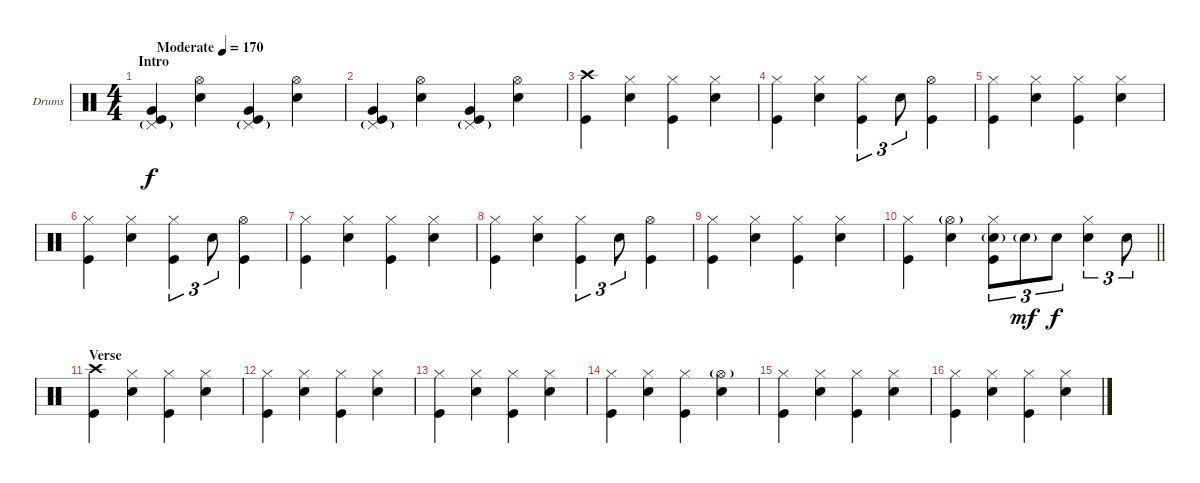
\bracketExtendMode groupsimilarinstruments
\firstSystemTrackNameOrientation horizontal
\otherSystemsTrackNameOrientation horizontal
\track ("Dave Grohl [Drumms]" "Drums") {instrument percussion}
\staff {score}
\articulation defaults
\ts (4 4)
\beaming (8 2 2 2 2)
\section ("" "Intro")
\tempo (170 "Moderate")
\clef neutral
\ks c
("Pedal Hi-Hat (hit)"{g} "Very Low Tom (hit)" "Kick (hit)").4{dy f} ("Hi-Hat (open)" "Snare (hit) 2").4 ("Pedal Hi-Hat (hit)"{g} "Very Low Tom (hit)" "Kick (hit)").4 ("Hi-Hat (open)" "Snare (hit) 2").4 |
("Pedal Hi-Hat (hit)"{g} "Very Low Tom (hit)" "Kick (hit)").4 ("Hi-Hat (open)" "Snare (hit) 2").4 ("Pedal Hi-Hat (hit)"{g} "Very Low Tom (hit)" "Kick (hit)").4 ("Hi-Hat (open)" "Snare (hit) 2").4 |
("Crash high (hit)" "Kick (hit)").4 ("Hi-Hat (closed)" "Snare (hit) 2").4 ("Hi-Hat (closed)" "Kick (hit)").4 ("Hi-Hat (closed)" "Snare (hit) 2").4 |
("Hi-Hat (closed)" "Kick (hit)").4 ("Hi-Hat (closed)" "Snare (hit) 2").4 ("Hi-Hat (closed)" "Kick (hit)").4{tu (3 2)} "Snare (hit) 2".8{tu (3 2)} ("Hi-Hat (open)" "Kick (hit)").4 |
("Hi-Hat (closed)" "Kick (hit)").4 ("Hi-Hat (closed)" "Snare (hit) 2").4 ("Hi-Hat (closed)" "Kick (hit)").4 ("Hi-Hat (closed)" "Snare (hit) 2").4 |
("Hi-Hat (closed)" "Kick (hit)").4 ("Hi-Hat (closed)" "Snare (hit) 2").4 ("Hi-Hat (closed)" "Kick (hit)").4{tu (3 2)} "Snare (hit) 2".8{tu (3 2)} ("Hi-Hat (open)" "Kick (hit)").4 |
("Hi-Hat (closed)" "Kick (hit)").4 ("Hi-Hat (closed)" "Snare (hit) 2").4 ("Hi-Hat (closed)" "Kick (hit)").4 ("Hi-Hat (closed)" "Snare (hit) 2").4 |
("Hi-Hat (closed)" "Kick (hit)").4 ("Hi-Hat (closed)" "Snare (hit) 2").4 ("Hi-Hat (closed)" "Kick (hit)").4{tu (3 2)} "Snare (hit) 2".8{tu (3 2)} ("Hi-Hat (open)" "Kick (hit)").4 |
("Hi-Hat (closed)" "Kick (hit)").4 ("Hi-Hat (closed)" "Snare (hit) 2").4 ("Hi-Hat (closed)" "Kick (hit)").4 ("Hi-Hat (closed)" "Snare (hit) 2").4 |
\barLineRight lightlight
("Hi-Hat (closed)" "Kick (hit)").4 ("Hi-Hat (open)"{g} "Snare (hit) 2").4 ("Hi-Hat (closed)" "Snare (hit) 2"{g} "Kick (hit)").8{tu (3 2)} "Snare (hit) 2"{g}.8{tu (3 2) dy mf} "Snare (hit) 2".8{tu (3 2) dy f} ("Hi-Hat (closed)" "Snare (hit) 2").4{tu (3 2)} "Snare (hit) 2".8{tu (3 2)} |
\section ("" "Verse")
("Crash high (hit)" "Kick (hit)").4 ("Hi-Hat (closed)" "Snare (hit) 2").4 ("Hi-Hat (closed)" "Kick (hit)").4 ("Hi-Hat (closed)" "Snare (hit) 2").4 |
("Hi-Hat (closed)" "Kick (hit)").4 ("Hi-Hat (closed)" "Snare (hit) 2").4 ("Hi-Hat (closed)" "Kick (hit)").4 ("Hi-Hat (closed)" "Snare (hit) 2").4 |
("Hi-Hat (closed)" "Kick (hit)").4 ("Hi-Hat (closed)" "Snare (hit) 2").4 ("Hi-Hat (closed)" "Kick (hit)").4 ("Hi-Hat (closed)" "Snare (hit) 2").4 |
("Hi-Hat (closed)" "Kick (hit)").4 ("Hi-Hat (closed)" "Snare (hit) 2").4 ("Hi-Hat (closed)" "Kick (hit)").4 ("Hi-Hat (open)"{g} "Snare (hit) 2").4 |
("Hi-Hat (closed)" "Kick (hit)").4 ("Hi-Hat (closed)" "Snare (hit) 2").4 ("Hi-Hat (closed)" "Kick (hit)").4 ("Hi-Hat (closed)" "Snare (hit) 2").4 |
("Hi-Hat (closed)" "Kick (hit)").4 ("Hi-Hat (closed)" "Snare (hit) 2").4 ("Hi-Hat (closed)" "Kick (hit)").4 ("Hi-Hat (closed)" "Snare (hit) 2").4
